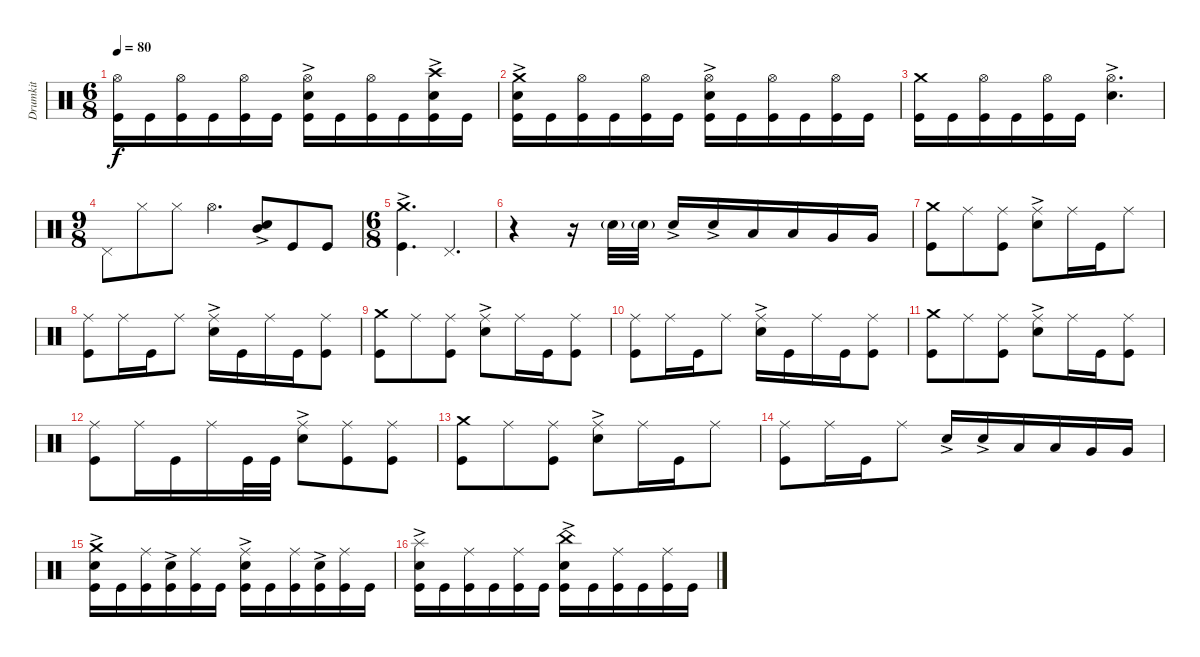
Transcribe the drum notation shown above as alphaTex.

\track ("Drumkit" "Drumkit") {instrument percussion}
\staff {score}
\articulation defaults
\ts (6 8)
\tempo 80
\clef neutral
\ks c
("Kick (hit)" "Hi-Hat (open)").16{dy f} "Kick (hit)".16 ("Kick (hit)" "Hi-Hat (open)").16 "Kick (hit)".16 ("Kick (hit)" "Hi-Hat (open)").16 "Kick (hit)".16 ("Kick (hit)" "Hi-Hat (open)" "Snare (hit) 2"{ac}).16 "Kick (hit)".16 ("Kick (hit)" "Hi-Hat (open)").16 "Kick (hit)".16 ("Kick (hit)" "Snare (hit) 2"{ac} "Crash high (hit)").16 "Kick (hit)".16 |
("Kick (hit)" "Crash medium (hit)" "Snare (hit) 2"{ac}).16 "Kick (hit)".16 ("Kick (hit)" "Hi-Hat (open)").16 "Kick (hit)".16 ("Kick (hit)" "Hi-Hat (open)").16 "Kick (hit)".16 ("Kick (hit)" "Hi-Hat (open)"{ac} "Snare (hit) 2"{ac}).16 "Kick (hit)".16 ("Kick (hit)" "Hi-Hat (open)").16 "Kick (hit)".16 ("Kick (hit)" "Hi-Hat (open)").16 "Kick (hit)".16 |
("Kick (hit)" "Crash medium (hit)").16 "Kick (hit)".16 ("Kick (hit)" "Hi-Hat (open)").16 "Kick (hit)".16 ("Kick (hit)" "Hi-Hat (open)").16 "Kick (hit)".16 ("Snare (hit) 2"{ac} "Hi-Hat (open)").4{d} |
\ts (9 8)
"Pedal Hi-Hat (hit)".8 "Hi-Hat (closed)".8 "Hi-Hat (closed)".8 "Hi-Hat (open)".4{d} ("Snare (hit) 2"{ac} "Mid Tom (hit)").8 "Kick (hit)".8 "Kick (hit)".8 |
\ts (6 8)
("Kick (hit)" "Crash medium (hit)"{ac}).4{d} "Pedal Hi-Hat (hit)".4{d} |
r.4 r.16 "Snare (hit) 2"{g}.32 "Snare (hit) 2"{g}.32 "Snare (hit) 2"{ac}.16 "Snare (hit) 2"{ac}.16 "Low Tom (hit)".16 "Low Tom (hit)".16 "Very Low Tom (hit)".16 "Very Low Tom (hit)".16 |
("Kick (hit)" "Crash medium (hit)").8 "Ride (middle)".8 ("Ride (middle)" "Kick (hit)").8 ("Snare (hit) 2"{ac} "Ride (middle)").8 "Ride (middle)".16 "Kick (hit)".16 "Ride (middle)".8 |
("Kick (hit)" "Ride (middle)").8 "Ride (middle)".16 "Kick (hit)".16 "Ride (middle)".8 ("Snare (hit) 2"{ac} "Ride (middle)").16 "Kick (hit)".16 "Ride (middle)".16 "Kick (hit)".16 ("Ride (middle)" "Kick (hit)").8 |
("Kick (hit)" "Crash medium (hit)").8 "Ride (middle)".8 ("Ride (middle)" "Kick (hit)").8 ("Snare (hit) 2"{ac} "Ride (middle)").8 "Ride (middle)".16 "Kick (hit)".16 ("Ride (middle)" "Kick (hit)").8 |
("Kick (hit)" "Ride (middle)").8 "Ride (middle)".16 "Kick (hit)".16 "Ride (middle)".8 ("Snare (hit) 2"{ac} "Ride (middle)").16 "Kick (hit)".16 "Ride (middle)".16 "Kick (hit)".16 ("Ride (middle)" "Kick (hit)").8 |
("Kick (hit)" "Crash medium (hit)").8 "Ride (middle)".8 ("Ride (middle)" "Kick (hit)").8 ("Snare (hit) 2"{ac} "Ride (middle)").8 "Ride (middle)".16 "Kick (hit)".16 ("Ride (middle)" "Kick (hit)").8 |
("Kick (hit)" "Ride (middle)").8 "Ride (middle)".16 "Kick (hit)".16 "Ride (middle)".16 "Kick (hit)".32 "Kick (hit)".32 ("Snare (hit) 2"{ac} "Ride (middle)").8 ("Kick (hit)" "Ride (middle)").8 ("Kick (hit)" "Ride (middle)").8 |
("Kick (hit)" "Crash medium (hit)").8 "Ride (middle)".8 ("Ride (middle)" "Kick (hit)").8 ("Snare (hit) 2"{ac} "Ride (middle)").8 "Ride (middle)".16 "Kick (hit)".16 "Ride (middle)".8 |
("Kick (hit)" "Ride (middle)").8 "Ride (middle)".16 "Kick (hit)".16 "Ride (middle)".8 "Snare (hit) 2"{ac}.16 "Snare (hit) 2"{ac}.16 "Low Tom (hit)".16 "Low Tom (hit)".16 "Very Low Tom (hit)".16 "Very Low Tom (hit)".16 |
("Kick (hit)" "Snare (hit) 2"{ac} "Crash medium (hit)").16 "Kick (hit)".16 ("Kick (hit)" "Ride (middle)").16 ("Kick (hit)" "Snare (hit) 2"{ac}).16 ("Kick (hit)" "Ride (middle)").16 "Kick (hit)".16 ("Kick (hit)" "Snare (hit) 2"{ac} "Ride (middle)").16 "Kick (hit)".16 ("Kick (hit)" "Ride (middle)").16 ("Kick (hit)" "Snare (hit) 2"{ac}).16 ("Kick (hit)" "Ride (middle)").16 "Kick (hit)".16 |
("Kick (hit)" "Snare (hit) 2"{ac} "Splash (hit)").16 "Kick (hit)".16 ("Kick (hit)" "Ride (middle)").16 "Kick (hit)".16 ("Kick (hit)" "Ride (middle)").16 "Kick (hit)".16 ("Kick (hit)" "Snare (hit) 2"{ac} "China (hit)").16 "Kick (hit)".16 ("Kick (hit)" "Ride (middle)").16 "Kick (hit)".16 ("Kick (hit)" "Ride (middle)").16 "Kick (hit)".16
